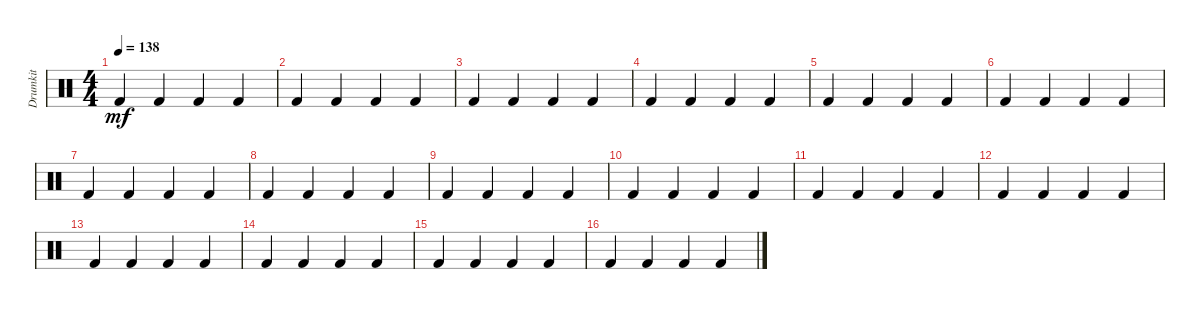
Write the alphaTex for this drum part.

\track ("Drumkit" "Drumkit") {instrument percussion}
\staff {score}
\articulation defaults
\ts (4 4)
\tempo 138
\clef neutral
\ks c "Kick (hit) 2".4{dy mf} "Kick (hit) 2".4 "Kick (hit) 2".4 "Kick (hit) 2".4
|
"Kick (hit) 2".4 "Kick (hit) 2".4 "Kick (hit) 2".4 "Kick (hit) 2".4 |
"Kick (hit) 2".4 "Kick (hit) 2".4 "Kick (hit) 2".4 "Kick (hit) 2".4 |
"Kick (hit) 2".4 "Kick (hit) 2".4 "Kick (hit) 2".4 "Kick (hit) 2".4 |
"Kick (hit) 2".4 "Kick (hit) 2".4 "Kick (hit) 2".4 "Kick (hit) 2".4 |
"Kick (hit) 2".4 "Kick (hit) 2".4 "Kick (hit) 2".4 "Kick (hit) 2".4 |
"Kick (hit) 2".4 "Kick (hit) 2".4 "Kick (hit) 2".4 "Kick (hit) 2".4 |
"Kick (hit) 2".4 "Kick (hit) 2".4 "Kick (hit) 2".4 "Kick (hit) 2".4 |
"Kick (hit) 2".4 "Kick (hit) 2".4 "Kick (hit) 2".4 "Kick (hit) 2".4 |
"Kick (hit) 2".4 "Kick (hit) 2".4 "Kick (hit) 2".4 "Kick (hit) 2".4 |
"Kick (hit) 2".4 "Kick (hit) 2".4 "Kick (hit) 2".4 "Kick (hit) 2".4 |
"Kick (hit) 2".4 "Kick (hit) 2".4 "Kick (hit) 2".4 "Kick (hit) 2".4 |
"Kick (hit) 2".4 "Kick (hit) 2".4 "Kick (hit) 2".4 "Kick (hit) 2".4 |
"Kick (hit) 2".4 "Kick (hit) 2".4 "Kick (hit) 2".4 "Kick (hit) 2".4 |
"Kick (hit) 2".4 "Kick (hit) 2".4 "Kick (hit) 2".4 "Kick (hit) 2".4 |
"Kick (hit) 2".4 "Kick (hit) 2".4 "Kick (hit) 2".4 "Kick (hit) 2".4
